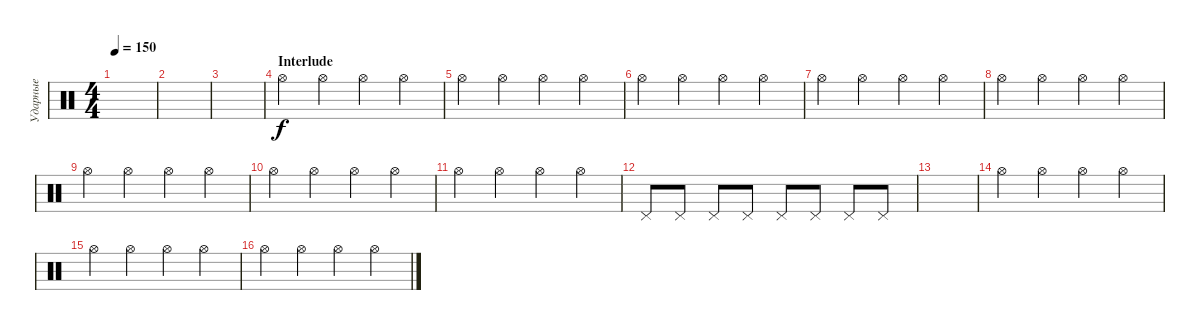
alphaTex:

\track ("Ударные" "Ударные") {instrument percussion}
\staff {score}
\articulation defaults
\ts (4 4)
\tempo 150
\clef neutral
\ks c
|
|
|
\section ("" "Interlude")
"Hi-Hat (open)".4 "Hi-Hat (open)".4 "Hi-Hat (open)".4 "Hi-Hat (open)".4 |
"Hi-Hat (open)".4 "Hi-Hat (open)".4 "Hi-Hat (open)".4 "Hi-Hat (open)".4 |
"Hi-Hat (open)".4 "Hi-Hat (open)".4 "Hi-Hat (open)".4 "Hi-Hat (open)".4 |
"Hi-Hat (open)".4 "Hi-Hat (open)".4 "Hi-Hat (open)".4 "Hi-Hat (open)".4 |
"Hi-Hat (open)".4 "Hi-Hat (open)".4 "Hi-Hat (open)".4 "Hi-Hat (open)".4 |
"Hi-Hat (open)".4 "Hi-Hat (open)".4 "Hi-Hat (open)".4 "Hi-Hat (open)".4 |
"Hi-Hat (open)".4 "Hi-Hat (open)".4 "Hi-Hat (open)".4 "Hi-Hat (open)".4 |
"Hi-Hat (open)".4 "Hi-Hat (open)".4 "Hi-Hat (open)".4 "Hi-Hat (open)".4 |
"Pedal Hi-Hat (hit)".8 "Pedal Hi-Hat (hit)".8 "Pedal Hi-Hat (hit)".8 "Pedal Hi-Hat (hit)".8 "Pedal Hi-Hat (hit)".8 "Pedal Hi-Hat (hit)".8 "Pedal Hi-Hat (hit)".8 "Pedal Hi-Hat (hit)".8 |
|
"Hi-Hat (open)".4 "Hi-Hat (open)".4 "Hi-Hat (open)".4 "Hi-Hat (open)".4 |
"Hi-Hat (open)".4 "Hi-Hat (open)".4 "Hi-Hat (open)".4 "Hi-Hat (open)".4 |
"Hi-Hat (open)".4 "Hi-Hat (open)".4 "Hi-Hat (open)".4 "Hi-Hat (open)".4
